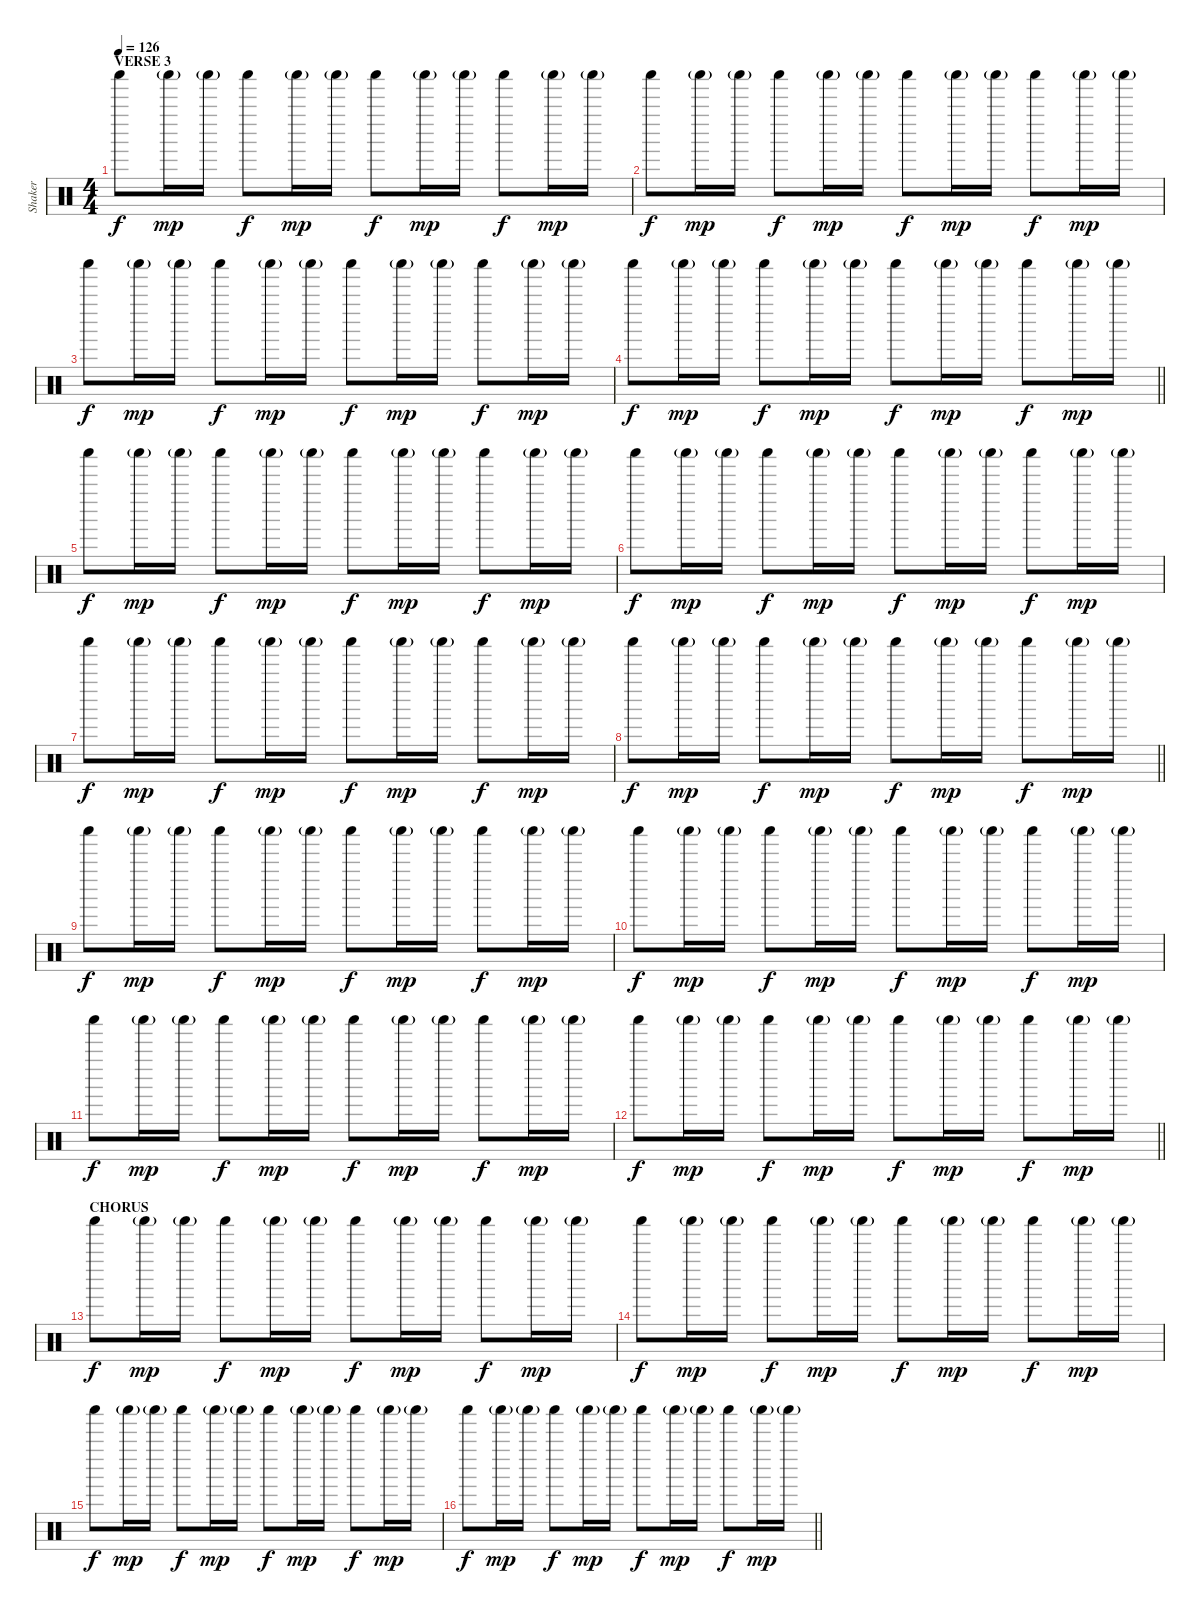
\track ("Shaker" "Shaker") {instrument percussion}
\staff {score}
\articulation defaults
\ts (4 4)
\section ("" "VERSE 3")
\tempo 126
\clef neutral
\ks c "Shaker (hit)".8{dy f} "Shaker (hit)"{g}.16{dy mp} "Shaker (hit)"{g}.16 "Shaker (hit)".8{dy f} "Shaker (hit)"{g}.16{dy mp} "Shaker (hit)"{g}.16 "Shaker (hit)".8{dy f} "Shaker (hit)"{g}.16{dy mp} "Shaker (hit)"{g}.16 "Shaker (hit)".8{dy f} "Shaker (hit)"{g}.16{dy mp} "Shaker (hit)"{g}.16
|
"Shaker (hit)".8{dy f} "Shaker (hit)"{g}.16{dy mp} "Shaker (hit)"{g}.16 "Shaker (hit)".8{dy f} "Shaker (hit)"{g}.16{dy mp} "Shaker (hit)"{g}.16 "Shaker (hit)".8{dy f} "Shaker (hit)"{g}.16{dy mp} "Shaker (hit)"{g}.16 "Shaker (hit)".8{dy f} "Shaker (hit)"{g}.16{dy mp} "Shaker (hit)"{g}.16 |
"Shaker (hit)".8{dy f} "Shaker (hit)"{g}.16{dy mp} "Shaker (hit)"{g}.16 "Shaker (hit)".8{dy f} "Shaker (hit)"{g}.16{dy mp} "Shaker (hit)"{g}.16 "Shaker (hit)".8{dy f} "Shaker (hit)"{g}.16{dy mp} "Shaker (hit)"{g}.16 "Shaker (hit)".8{dy f} "Shaker (hit)"{g}.16{dy mp} "Shaker (hit)"{g}.16 |
\barLineRight lightlight "Shaker (hit)".8{dy f} "Shaker (hit)"{g}.16{dy mp} "Shaker (hit)"{g}.16 "Shaker (hit)".8{dy f} "Shaker (hit)"{g}.16{dy mp} "Shaker (hit)"{g}.16 "Shaker (hit)".8{dy f} "Shaker (hit)"{g}.16{dy mp} "Shaker (hit)"{g}.16 "Shaker (hit)".8{dy f} "Shaker (hit)"{g}.16{dy mp} "Shaker (hit)"{g}.16
|
"Shaker (hit)".8{dy f} "Shaker (hit)"{g}.16{dy mp} "Shaker (hit)"{g}.16 "Shaker (hit)".8{dy f} "Shaker (hit)"{g}.16{dy mp} "Shaker (hit)"{g}.16 "Shaker (hit)".8{dy f} "Shaker (hit)"{g}.16{dy mp} "Shaker (hit)"{g}.16 "Shaker (hit)".8{dy f} "Shaker (hit)"{g}.16{dy mp} "Shaker (hit)"{g}.16 |
"Shaker (hit)".8{dy f} "Shaker (hit)"{g}.16{dy mp} "Shaker (hit)"{g}.16 "Shaker (hit)".8{dy f} "Shaker (hit)"{g}.16{dy mp} "Shaker (hit)"{g}.16 "Shaker (hit)".8{dy f} "Shaker (hit)"{g}.16{dy mp} "Shaker (hit)"{g}.16 "Shaker (hit)".8{dy f} "Shaker (hit)"{g}.16{dy mp} "Shaker (hit)"{g}.16 |
"Shaker (hit)".8{dy f} "Shaker (hit)"{g}.16{dy mp} "Shaker (hit)"{g}.16 "Shaker (hit)".8{dy f} "Shaker (hit)"{g}.16{dy mp} "Shaker (hit)"{g}.16 "Shaker (hit)".8{dy f} "Shaker (hit)"{g}.16{dy mp} "Shaker (hit)"{g}.16 "Shaker (hit)".8{dy f} "Shaker (hit)"{g}.16{dy mp} "Shaker (hit)"{g}.16 |
\barLineRight lightlight "Shaker (hit)".8{dy f} "Shaker (hit)"{g}.16{dy mp} "Shaker (hit)"{g}.16 "Shaker (hit)".8{dy f} "Shaker (hit)"{g}.16{dy mp} "Shaker (hit)"{g}.16 "Shaker (hit)".8{dy f} "Shaker (hit)"{g}.16{dy mp} "Shaker (hit)"{g}.16 "Shaker (hit)".8{dy f} "Shaker (hit)"{g}.16{dy mp} "Shaker (hit)"{g}.16
|
"Shaker (hit)".8{dy f} "Shaker (hit)"{g}.16{dy mp} "Shaker (hit)"{g}.16 "Shaker (hit)".8{dy f} "Shaker (hit)"{g}.16{dy mp} "Shaker (hit)"{g}.16 "Shaker (hit)".8{dy f} "Shaker (hit)"{g}.16{dy mp} "Shaker (hit)"{g}.16 "Shaker (hit)".8{dy f} "Shaker (hit)"{g}.16{dy mp} "Shaker (hit)"{g}.16 |
"Shaker (hit)".8{dy f} "Shaker (hit)"{g}.16{dy mp} "Shaker (hit)"{g}.16 "Shaker (hit)".8{dy f} "Shaker (hit)"{g}.16{dy mp} "Shaker (hit)"{g}.16 "Shaker (hit)".8{dy f} "Shaker (hit)"{g}.16{dy mp} "Shaker (hit)"{g}.16 "Shaker (hit)".8{dy f} "Shaker (hit)"{g}.16{dy mp} "Shaker (hit)"{g}.16 |
"Shaker (hit)".8{dy f} "Shaker (hit)"{g}.16{dy mp} "Shaker (hit)"{g}.16 "Shaker (hit)".8{dy f} "Shaker (hit)"{g}.16{dy mp} "Shaker (hit)"{g}.16 "Shaker (hit)".8{dy f} "Shaker (hit)"{g}.16{dy mp} "Shaker (hit)"{g}.16 "Shaker (hit)".8{dy f} "Shaker (hit)"{g}.16{dy mp} "Shaker (hit)"{g}.16 |
\barLineRight lightlight "Shaker (hit)".8{dy f} "Shaker (hit)"{g}.16{dy mp} "Shaker (hit)"{g}.16 "Shaker (hit)".8{dy f} "Shaker (hit)"{g}.16{dy mp} "Shaker (hit)"{g}.16 "Shaker (hit)".8{dy f} "Shaker (hit)"{g}.16{dy mp} "Shaker (hit)"{g}.16 "Shaker (hit)".8{dy f} "Shaker (hit)"{g}.16{dy mp} "Shaker (hit)"{g}.16
|
\section ("" "CHORUS")
"Shaker (hit)".8{dy f} "Shaker (hit)"{g}.16{dy mp} "Shaker (hit)"{g}.16 "Shaker (hit)".8{dy f} "Shaker (hit)"{g}.16{dy mp} "Shaker (hit)"{g}.16 "Shaker (hit)".8{dy f} "Shaker (hit)"{g}.16{dy mp} "Shaker (hit)"{g}.16 "Shaker (hit)".8{dy f} "Shaker (hit)"{g}.16{dy mp} "Shaker (hit)"{g}.16 |
"Shaker (hit)".8{dy f} "Shaker (hit)"{g}.16{dy mp} "Shaker (hit)"{g}.16 "Shaker (hit)".8{dy f} "Shaker (hit)"{g}.16{dy mp} "Shaker (hit)"{g}.16 "Shaker (hit)".8{dy f} "Shaker (hit)"{g}.16{dy mp} "Shaker (hit)"{g}.16 "Shaker (hit)".8{dy f} "Shaker (hit)"{g}.16{dy mp} "Shaker (hit)"{g}.16 |
"Shaker (hit)".8{dy f} "Shaker (hit)"{g}.16{dy mp} "Shaker (hit)"{g}.16 "Shaker (hit)".8{dy f} "Shaker (hit)"{g}.16{dy mp} "Shaker (hit)"{g}.16 "Shaker (hit)".8{dy f} "Shaker (hit)"{g}.16{dy mp} "Shaker (hit)"{g}.16 "Shaker (hit)".8{dy f} "Shaker (hit)"{g}.16{dy mp} "Shaker (hit)"{g}.16 |
\barLineRight lightlight "Shaker (hit)".8{dy f} "Shaker (hit)"{g}.16{dy mp} "Shaker (hit)"{g}.16 "Shaker (hit)".8{dy f} "Shaker (hit)"{g}.16{dy mp} "Shaker (hit)"{g}.16 "Shaker (hit)".8{dy f} "Shaker (hit)"{g}.16{dy mp} "Shaker (hit)"{g}.16 "Shaker (hit)".8{dy f} "Shaker (hit)"{g}.16{dy mp} "Shaker (hit)"{g}.16
